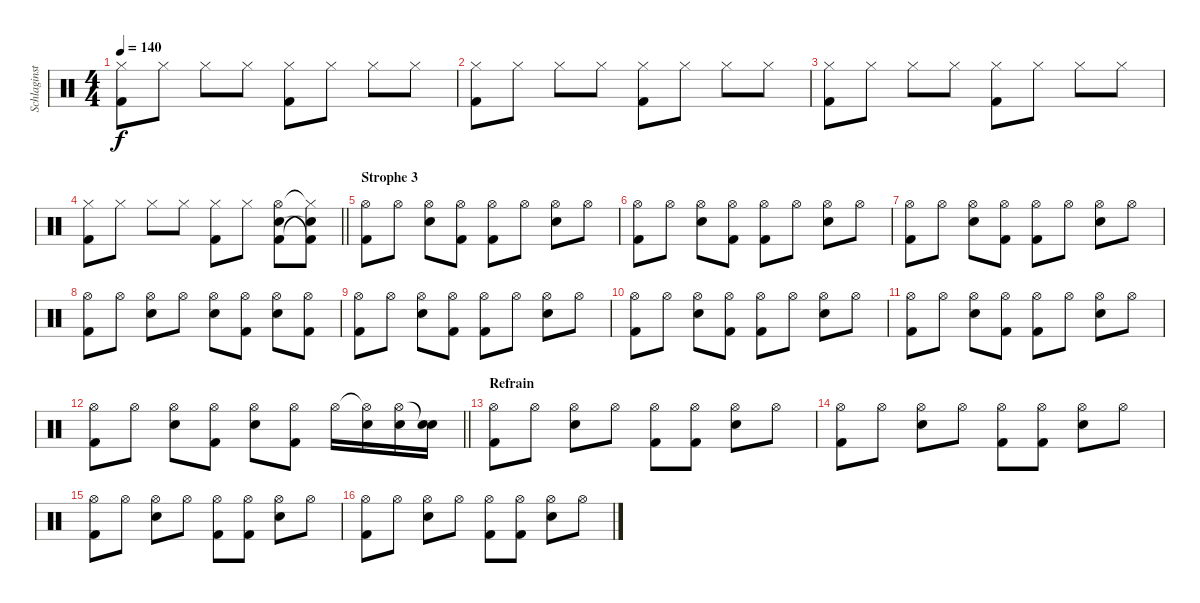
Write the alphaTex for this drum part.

\track ("Schlaginstrumente - Auswahl" "Schlaginst") {instrument percussion}
\staff {score}
\articulation defaults
\ts (4 4)
\tempo 140
\clef neutral
\ks c
("Hi-Hat (closed)" "Kick (hit) 2").8{dy f} "Hi-Hat (closed)".8 "Hi-Hat (closed)".8 "Hi-Hat (closed)".8 ("Hi-Hat (closed)" "Kick (hit) 2").8 "Hi-Hat (closed)".8 "Hi-Hat (closed)".8 "Hi-Hat (closed)".8 |
("Hi-Hat (closed)" "Kick (hit) 2").8 "Hi-Hat (closed)".8 "Hi-Hat (closed)".8 "Hi-Hat (closed)".8 ("Hi-Hat (closed)" "Kick (hit) 2").8 "Hi-Hat (closed)".8 "Hi-Hat (closed)".8 "Hi-Hat (closed)".8 |
("Hi-Hat (closed)" "Kick (hit) 2").8 "Hi-Hat (closed)".8 "Hi-Hat (closed)".8 "Hi-Hat (closed)".8 ("Hi-Hat (closed)" "Kick (hit) 2").8 "Hi-Hat (closed)".8 "Hi-Hat (closed)".8 "Hi-Hat (closed)".8 |
\barLineRight lightlight
("Hi-Hat (closed)" "Kick (hit) 2").8 "Hi-Hat (closed)".8 "Hi-Hat (closed)".8 "Hi-Hat (closed)".8 ("Hi-Hat (closed)" "Kick (hit) 2").8 "Hi-Hat (closed)".8 ("Hi-Hat (open)" "Snare (hit) 2" "Kick (hit) 2").8 ("Hi-Hat (closed)"{t} "Kick (hit) 2"{t} "Snare (hit) 2"{t}).8 |
\section ("" "Strophe 3")
("Hi-Hat (open)" "Kick (hit) 2").8 "Hi-Hat (open)".8 ("Hi-Hat (open)" "Snare (hit) 2").8 ("Hi-Hat (open)" "Kick (hit) 2").8 ("Hi-Hat (open)" "Kick (hit) 2").8 "Hi-Hat (open)".8 ("Hi-Hat (open)" "Snare (hit) 2").8 "Hi-Hat (open)".8 |
("Hi-Hat (open)" "Kick (hit) 2").8 "Hi-Hat (open)".8 ("Hi-Hat (open)" "Snare (hit) 2").8 ("Hi-Hat (open)" "Kick (hit) 2").8 ("Hi-Hat (open)" "Kick (hit) 2").8 "Hi-Hat (open)".8 ("Hi-Hat (open)" "Snare (hit) 2").8 "Hi-Hat (open)".8 |
("Hi-Hat (open)" "Kick (hit) 2").8 "Hi-Hat (open)".8 ("Hi-Hat (open)" "Snare (hit) 2").8 ("Hi-Hat (open)" "Kick (hit) 2").8 ("Hi-Hat (open)" "Kick (hit) 2").8 "Hi-Hat (open)".8 ("Hi-Hat (open)" "Snare (hit) 2").8 "Hi-Hat (open)".8 |
("Hi-Hat (open)" "Kick (hit) 2").8 "Hi-Hat (open)".8 ("Hi-Hat (open)" "Snare (hit) 2").8 "Hi-Hat (open)".8 ("Hi-Hat (open)" "Snare (hit) 2").8 ("Hi-Hat (open)" "Kick (hit) 2").8 ("Hi-Hat (open)" "Snare (hit) 2").8 ("Hi-Hat (open)" "Kick (hit) 2").8 |
("Hi-Hat (open)" "Kick (hit) 2").8 "Hi-Hat (open)".8 ("Hi-Hat (open)" "Snare (hit) 2").8 ("Hi-Hat (open)" "Kick (hit) 2").8 ("Hi-Hat (open)" "Kick (hit) 2").8 "Hi-Hat (open)".8 ("Hi-Hat (open)" "Snare (hit) 2").8 "Hi-Hat (open)".8 |
("Hi-Hat (open)" "Kick (hit) 2").8 "Hi-Hat (open)".8 ("Hi-Hat (open)" "Snare (hit) 2").8 ("Hi-Hat (open)" "Kick (hit) 2").8 ("Hi-Hat (open)" "Kick (hit) 2").8 "Hi-Hat (open)".8 ("Hi-Hat (open)" "Snare (hit) 2").8 "Hi-Hat (open)".8 |
("Hi-Hat (open)" "Kick (hit) 2").8 "Hi-Hat (open)".8 ("Hi-Hat (open)" "Snare (hit) 2").8 ("Hi-Hat (open)" "Kick (hit) 2").8 ("Hi-Hat (open)" "Kick (hit) 2").8 "Hi-Hat (open)".8 ("Hi-Hat (open)" "Snare (hit) 2").8 "Hi-Hat (open)".8 |
\barLineRight lightlight
("Hi-Hat (open)" "Kick (hit) 2").8 "Hi-Hat (open)".8 ("Hi-Hat (open)" "Snare (hit) 2").8 ("Hi-Hat (open)" "Kick (hit) 2").8 ("Hi-Hat (open)" "Snare (hit) 2").8 ("Hi-Hat (open)" "Kick (hit) 2").8 "Hi-Hat (open)".16 ("Hi-Hat (open)"{t} "Snare (hit) 2").16 ("Hi-Hat (open)" "Snare (hit) 2").16 ("Snare (hit)"{t} "Snare (hit) 2").16 |
\section ("" "Refrain")
("Hi-Hat (open)" "Kick (hit) 2").8 "Hi-Hat (open)".8 ("Hi-Hat (open)" "Snare (hit) 2").8 "Hi-Hat (open)".8 ("Hi-Hat (open)" "Kick (hit) 2").8 ("Hi-Hat (open)" "Kick (hit) 2").8 ("Hi-Hat (open)" "Snare (hit) 2").8 "Hi-Hat (open)".8 |
("Hi-Hat (open)" "Kick (hit) 2").8 "Hi-Hat (open)".8 ("Hi-Hat (open)" "Snare (hit) 2").8 "Hi-Hat (open)".8 ("Hi-Hat (open)" "Kick (hit) 2").8 ("Hi-Hat (open)" "Kick (hit) 2").8 ("Hi-Hat (open)" "Snare (hit) 2").8 "Hi-Hat (open)".8 |
("Hi-Hat (open)" "Kick (hit) 2").8 "Hi-Hat (open)".8 ("Hi-Hat (open)" "Snare (hit) 2").8 "Hi-Hat (open)".8 ("Hi-Hat (open)" "Kick (hit) 2").8 ("Hi-Hat (open)" "Kick (hit) 2").8 ("Hi-Hat (open)" "Snare (hit) 2").8 "Hi-Hat (open)".8 |
("Hi-Hat (open)" "Kick (hit) 2").8 "Hi-Hat (open)".8 ("Hi-Hat (open)" "Snare (hit) 2").8 "Hi-Hat (open)".8 ("Hi-Hat (open)" "Kick (hit) 2").8 ("Hi-Hat (open)" "Kick (hit) 2").8 ("Hi-Hat (open)" "Snare (hit) 2").8 "Hi-Hat (open)".8
